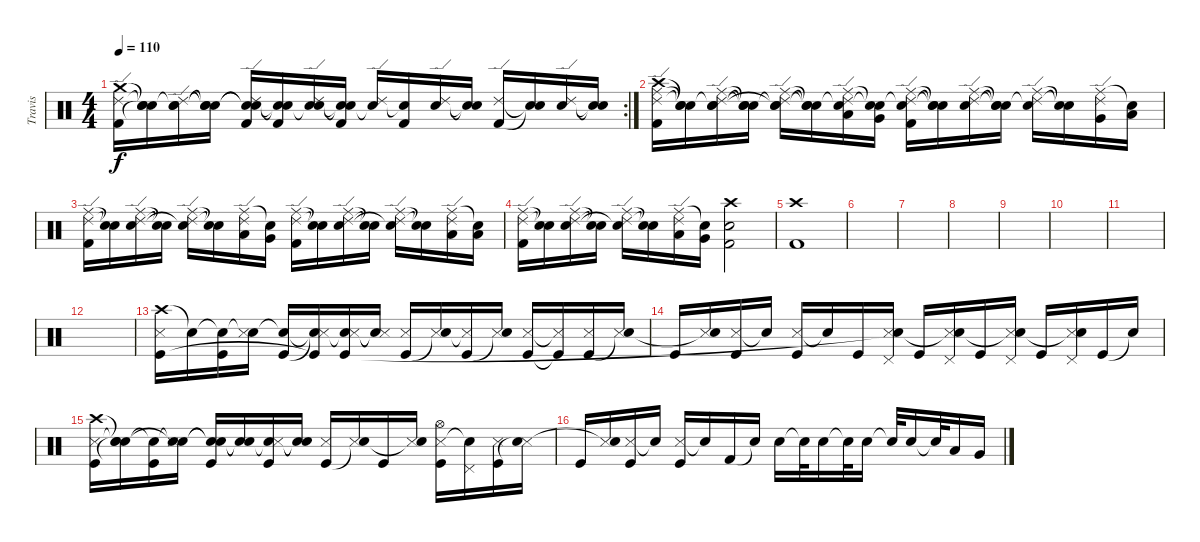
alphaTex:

\track ("Travis" "Travis") {instrument percussion}
\staff {score}
\articulation defaults
\rc 2
\ts (4 4)
\tempo 110
\clef neutral
\ks c
("Crash medium (hit)" "Ride (edge) 2" "Kick (hit) 2").16{dy f} ("Snare (hit)"{t} "Snare (hit)"{t} "Snare (hit)"{t}).16 ("Snare (hit)"{t} "Ride (edge) 2" "Electric Snare (hit)").16 ("Snare (hit)"{t} "Snare (hit)"{t} "Snare (hit)"{t}).16 ("Snare (hit)"{t} "Ride (edge) 2" "Snare (hit)"{t} "Kick (hit) 2").16 ("Snare (hit)"{t} "Snare (hit)"{t} "Kick (hit) 2").16 ("Snare (hit)"{t} "Ride (edge) 2" "Electric Snare (hit)").16 ("Snare (hit)"{t} "Snare (hit)"{t} "Kick (hit) 2").16 ("Ride (edge) 2" "Snare (hit)"{t}).16 ("Snare (hit)"{t} "Kick (hit) 2").16 ("Ride (edge) 2" "Electric Snare (hit)").16 ("Snare (hit)"{t} "Snare (hit)"{t}).16 ("Ride (edge) 2" "Kick (hit) 2").16 ("Snare (hit)"{t} "Snare (hit)"{t}).16 ("Ride (edge) 2" "Electric Snare (hit)").16 ("Snare (hit)"{t} "Snare (hit)"{t}).16 |
("Crash high (hit)" "Ride (middle)" "Ride (edge) 2" "Kick (hit) 2").16 ("Snare (hit)"{t} "Snare (hit)"{t} "Snare (hit)"{t}).16 ("Snare (hit)"{t} "Ride (middle)" "Ride (edge) 2" "Electric Snare (hit)").16 ("Snare (hit)"{t} "Snare (hit)"{t} "Snare (hit)"{t}).16 ("Snare (hit)"{t} "Ride (middle)" "Ride (edge) 2" "Snare (hit)"{t}).16 ("Snare (hit)"{t} "Snare (hit)"{t} "Snare (hit)"{t}).16 ("Snare (hit)"{t} "Ride (middle)" "Ride (edge) 2" "Low Tom (hit)").16 ("Snare (hit)"{t} "Snare (hit)"{t} "Very Low Tom (hit)").16 ("Snare (hit)"{t} "Ride (middle)" "Ride (edge) 2" "Kick (hit) 2").16 ("Snare (hit)"{t} "Snare (hit)"{t} "Snare (hit)"{t}).16 ("Ride (middle)" "Ride (edge) 2" "Electric Snare (hit)").16 ("Snare (hit)"{t} "Snare (hit)"{t} "Snare (hit)"{t}).16 ("Ride (middle)" "Ride (edge) 2" "Snare (hit)"{t}).16 ("Snare (hit)"{t} "Snare (hit)"{t}).16 ("Ride (middle)" "Ride (edge) 2" "Very Low Tom (hit)").16 ("Snare (hit)"{t} "Low Floor Tom (hit)").16 |
("Ride (middle)" "Ride (edge) 2" "Kick (hit) 2").16 ("Snare (hit)"{t} "Snare (hit)"{t}).16 ("Ride (middle)" "Ride (edge) 2" "Electric Snare (hit)").16 ("Snare (hit)"{t} "Snare (hit)"{t}).16 ("Ride (middle)" "Ride (edge) 2" "Snare (hit)"{t}).16 ("Snare (hit)"{t} "Snare (hit)"{t}).16 ("Ride (middle)" "Ride (edge) 2" "Low Tom (hit)").16 ("Snare (hit)"{t} "Very Low Tom (hit)").16 ("Ride (middle)" "Ride (edge) 2" "Kick (hit) 2").16 ("Snare (hit)"{t} "Snare (hit)"{t}).16 ("Ride (middle)" "Ride (edge) 2" "Electric Snare (hit)").16 ("Snare (hit)"{t} "Snare (hit)"{t}).16 ("Ride (middle)" "Ride (edge) 2" "Snare (hit)"{t}).16 ("Snare (hit)"{t} "Snare (hit)"{t}).16 ("Ride (middle)" "Ride (edge) 2" "Low Tom (hit)").16 ("Snare (hit)"{t} "Low Floor Tom (hit)").16 |
("Ride (middle)" "Ride (edge) 2" "Kick (hit) 2").16 ("Snare (hit)"{t} "Snare (hit)"{t}).16 ("Ride (middle)" "Ride (edge) 2" "Electric Snare (hit)").16 ("Snare (hit)"{t} "Snare (hit)"{t}).16 ("Ride (middle)" "Ride (edge) 2" "Snare (hit)"{t}).16 ("Snare (hit)"{t} "Snare (hit)"{t}).16 ("Ride (middle)" "Ride (edge) 2" "Low Tom (hit)").16 ("Snare (hit)"{t} "Very Low Tom (hit)").16 ("Crash high (hit)" "Electric Snare (hit)" "Kick (hit) 2").2 |
("Crash high (hit)" "Kick (hit) 2").1 |
|
|
|
|
|
|
|
("Crash high (hit)" "Snare (side stick) 3" "Kick (hit)").16 "Snare (hit)"{t}.16 ("Snare (hit)"{t} "Kick (hit)").16 ("Snare (hit)"{t} "Snare (side stick) 3").16 ("Snare (hit)"{t} "Kick (hit)").16 ("Snare (hit)"{t} "Snare (side stick) 3"{t} "Kick (hit)"{t}).16 ("Snare (hit)"{t} "Snare (side stick) 3" "Kick (hit)").16 ("Snare (hit)"{t} "Snare (side stick) 3"{t}).16 ("Snare (side stick) 3" "Kick (hit)").16 ("Snare (side stick) 3" "Snare (hit)"{t}).16 ("Snare (side stick) 3"{t} "Kick (hit)").16 ("Snare (side stick) 3" "Snare (hit)"{t}).16 ("Snare (side stick) 3" "Kick (hit)").16 ("Snare (side stick) 3"{t} "Kick (hit)"{t}).16 ("Snare (side stick) 3" "Kick (hit)").16 ("Snare (side stick) 3" "Snare (hit)"{t}).16 |
"Kick (hit)".16 ("Snare (side stick) 3" "Snare (hit)"{t}).16 ("Snare (side stick) 3" "Kick (hit)").16 "Snare (hit)"{t}.16 ("Snare (side stick) 3" "Kick (hit)").16 "Snare (hit)"{t}.16 "Kick (hit)".16 ("Snare (side stick) 3" "Pedal Hi-Hat (hit)" "Snare (hit)"{t}).16 "Kick (hit)".16 ("Snare (side stick) 3" "Pedal Hi-Hat (hit)" "Snare (hit)"{t}).16 "Kick (hit)".16 ("Snare (side stick) 3" "Pedal Hi-Hat (hit)" "Snare (hit)"{t}).16 "Kick (hit)".16 ("Snare (side stick) 3" "Pedal Hi-Hat (hit)" "Snare (hit)"{t}).16 "Kick (hit)".16 "Snare (hit)"{t}.16 |
("Crash high (hit)" "Snare (side stick) 3" "Kick (hit)").16 ("Snare (hit)"{t} "Snare (hit)"{t} "Snare (hit)"{t}).16 ("Snare (hit)"{t} "Kick (hit)").16 ("Snare (hit)"{t} "Snare (side stick) 3" "Snare (hit)"{t}).16 ("Snare (hit)"{t} "Snare (hit)"{t} "Kick (hit)").16 ("Snare (hit)"{t} "Snare (hit)"{t}).16 ("Snare (hit)"{t} "Snare (side stick) 3" "Kick (hit)").16 ("Snare (hit)"{t} "Snare (hit)"{t}).16 ("Snare (side stick) 3" "Kick (hit)").16 ("Snare (side stick) 3" "Snare (hit)"{t}).16 "Kick (hit)".16 ("Snare (side stick) 3" "Snare (hit)"{t}).16 ("Hi-Hat (open)" "Snare (side stick) 3" "Kick (hit)").16 ("Pedal Hi-Hat (hit)" "Snare (hit)"{t}).16 ("Snare (side stick) 3" "Kick (hit)").16 ("Snare (side stick) 3" "Snare (hit)"{t}).16 |
"Kick (hit)".16 ("Snare (side stick) 3" "Snare (hit)"{t}).16 ("Snare (side stick) 3" "Kick (hit)").16 "Snare (hit)"{t}.16 ("Snare (side stick) 3" "Kick (hit)").16 "Snare (hit)"{t}.16 "Kick (hit) 2".16 "Snare (hit)"{t}.16 "Electric Snare (hit)".16 "Snare (hit)"{t}.32 "Electric Snare (hit)".16 "Snare (hit)"{t}.32 "Electric Snare (hit)".16 "Electric Snare (hit)"{t}.32 "Electric Snare (hit)".16 "Snare (hit)"{t}.32 "Low Tom (hit)".16 "Very Low Tom (hit)".16
